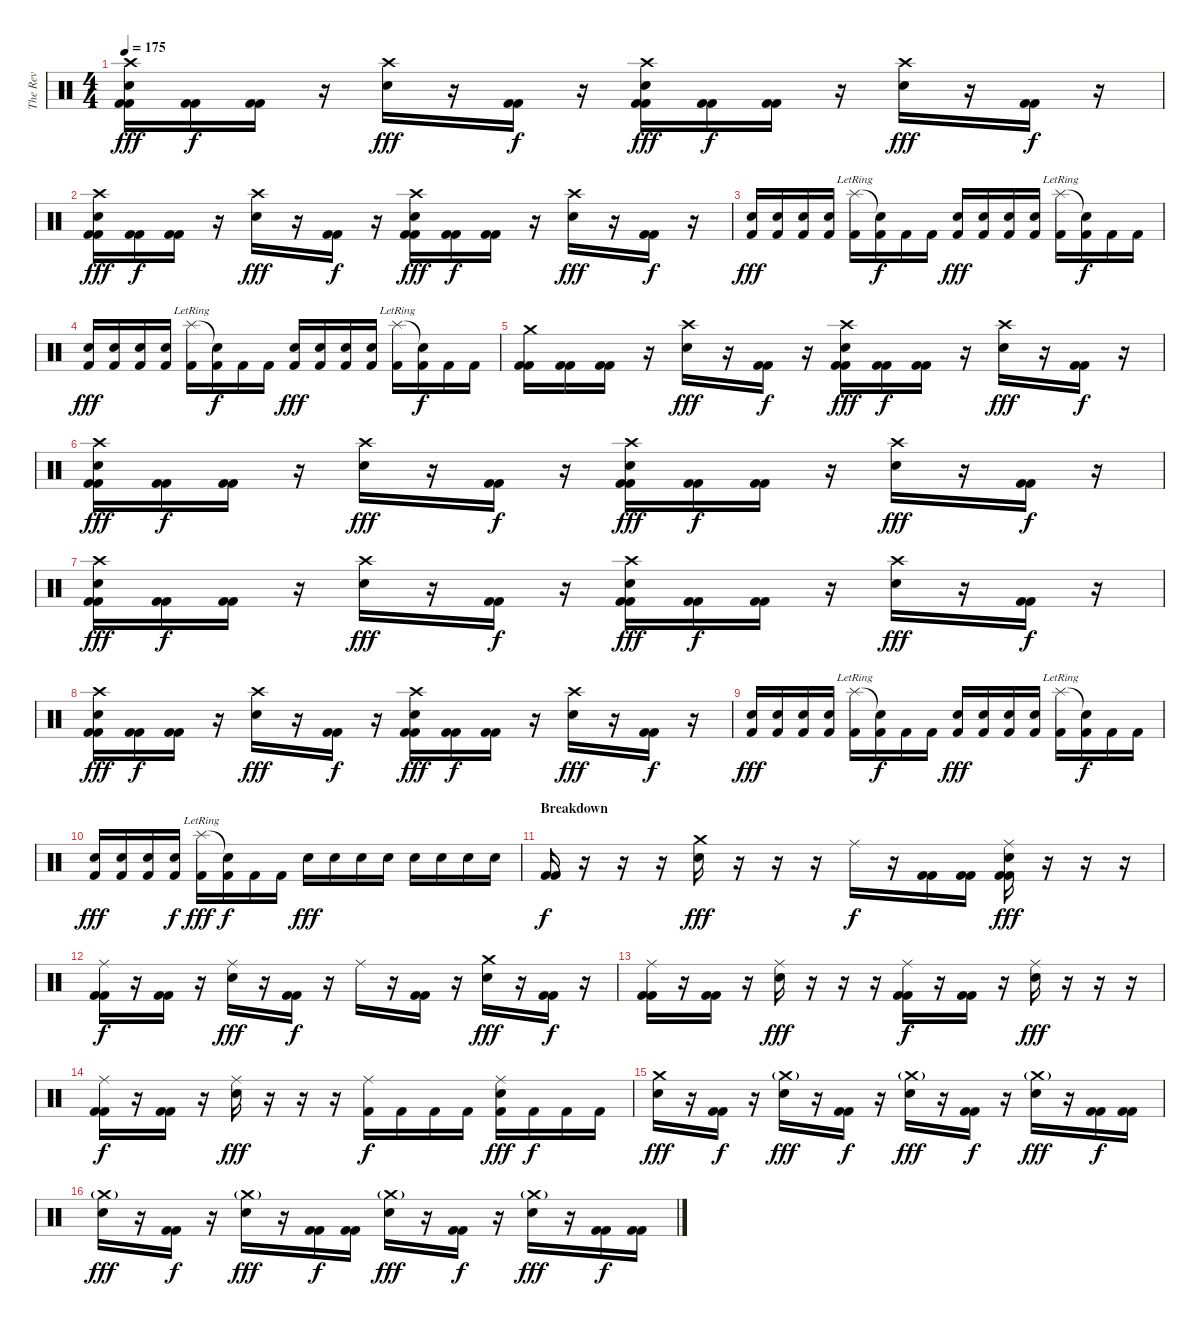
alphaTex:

\track ("The Rev" "The Rev") {instrument percussion}
\staff {score}
\articulation defaults
\ts (4 4)
\tempo 175
\clef neutral
\ks c
("Crash high (hit)" "Electric Snare (hit)" "Kick (hit) 2" "Kick (hit) 2").16{dy fff} ("Kick (hit) 2" "Kick (hit) 2").16{dy f} ("Kick (hit) 2" "Kick (hit) 2").16 r.16 ("Crash high (hit)" "Electric Snare (hit)").16{dy fff} r.16 ("Kick (hit) 2" "Kick (hit) 2").16{dy f} r.16 ("Crash high (hit)" "Electric Snare (hit)" "Kick (hit) 2" "Kick (hit) 2").16{dy fff} ("Kick (hit) 2" "Kick (hit) 2").16{dy f} ("Kick (hit) 2" "Kick (hit) 2").16 r.16 ("Crash high (hit)" "Electric Snare (hit)").16{dy fff} r.16 ("Kick (hit) 2" "Kick (hit) 2").16{dy f} r.16 |
("Crash high (hit)" "Electric Snare (hit)" "Kick (hit) 2" "Kick (hit) 2").16{dy fff} ("Kick (hit) 2" "Kick (hit) 2").16{dy f} ("Kick (hit) 2" "Kick (hit) 2").16 r.16 ("Crash high (hit)" "Electric Snare (hit)").16{dy fff} r.16 ("Kick (hit) 2" "Kick (hit) 2").16{dy f} r.16 ("Crash high (hit)" "Electric Snare (hit)" "Kick (hit) 2" "Kick (hit) 2").16{dy fff} ("Kick (hit) 2" "Kick (hit) 2").16{dy f} ("Kick (hit) 2" "Kick (hit) 2").16 r.16 ("Crash high (hit)" "Electric Snare (hit)").16{dy fff} r.16 ("Kick (hit) 2" "Kick (hit) 2").16{dy f} r.16 |
("Electric Snare (hit)" "Kick (hit) 2").16{dy fff} ("Electric Snare (hit)" "Kick (hit) 2").16 ("Electric Snare (hit)" "Kick (hit) 2").16 ("Electric Snare (hit)" "Kick (hit) 2").16 ("Splash (hit)"{lr} "Kick (hit) 2").16 ("Snare (hit)"{t} "Kick (hit) 2").16{dy f} "Kick (hit) 2".16 "Kick (hit) 2".16 ("Electric Snare (hit)" "Kick (hit) 2").16{dy fff} ("Electric Snare (hit)" "Kick (hit) 2").16 ("Electric Snare (hit)" "Kick (hit) 2").16 ("Electric Snare (hit)" "Kick (hit) 2").16 ("Splash (hit)"{lr} "Kick (hit) 2").16 ("Snare (hit)"{t} "Kick (hit) 2").16{dy f} "Kick (hit) 2".16 "Kick (hit) 2".16 |
("Electric Snare (hit)" "Kick (hit) 2").16{dy fff} ("Electric Snare (hit)" "Kick (hit) 2").16 ("Electric Snare (hit)" "Kick (hit) 2").16 ("Electric Snare (hit)" "Kick (hit) 2").16 ("Splash (hit)"{lr} "Kick (hit) 2").16 ("Snare (hit)"{t} "Kick (hit) 2").16{dy f} "Kick (hit) 2".16 "Kick (hit) 2".16 ("Electric Snare (hit)" "Kick (hit) 2").16{dy fff} ("Electric Snare (hit)" "Kick (hit) 2").16 ("Electric Snare (hit)" "Kick (hit) 2").16 ("Electric Snare (hit)" "Kick (hit) 2").16 ("Splash (hit)"{lr} "Kick (hit) 2").16 ("Snare (hit)"{t} "Kick (hit) 2").16{dy f} "Kick (hit) 2".16 "Kick (hit) 2".16 |
("Crash medium (hit)" "Kick (hit) 2" "Kick (hit) 2").16 ("Kick (hit) 2" "Kick (hit) 2").16 ("Kick (hit) 2" "Kick (hit) 2").16 r.16 ("Crash high (hit)" "Electric Snare (hit)").16{dy fff} r.16 ("Kick (hit) 2" "Kick (hit) 2").16{dy f} r.16 ("Crash high (hit)" "Electric Snare (hit)" "Kick (hit) 2" "Kick (hit) 2").16{dy fff} ("Kick (hit) 2" "Kick (hit) 2").16{dy f} ("Kick (hit) 2" "Kick (hit) 2").16 r.16 ("Crash high (hit)" "Electric Snare (hit)").16{dy fff} r.16 ("Kick (hit) 2" "Kick (hit) 2").16{dy f} r.16 |
("Crash high (hit)" "Electric Snare (hit)" "Kick (hit) 2" "Kick (hit) 2").16{dy fff} ("Kick (hit) 2" "Kick (hit) 2").16{dy f} ("Kick (hit) 2" "Kick (hit) 2").16 r.16 ("Crash high (hit)" "Electric Snare (hit)").16{dy fff} r.16 ("Kick (hit) 2" "Kick (hit) 2").16{dy f} r.16 ("Crash high (hit)" "Electric Snare (hit)" "Kick (hit) 2" "Kick (hit) 2").16{dy fff} ("Kick (hit) 2" "Kick (hit) 2").16{dy f} ("Kick (hit) 2" "Kick (hit) 2").16 r.16 ("Crash high (hit)" "Electric Snare (hit)").16{dy fff} r.16 ("Kick (hit) 2" "Kick (hit) 2").16{dy f} r.16 |
("Crash high (hit)" "Electric Snare (hit)" "Kick (hit) 2" "Kick (hit) 2").16{dy fff} ("Kick (hit) 2" "Kick (hit) 2").16{dy f} ("Kick (hit) 2" "Kick (hit) 2").16 r.16 ("Crash high (hit)" "Electric Snare (hit)").16{dy fff} r.16 ("Kick (hit) 2" "Kick (hit) 2").16{dy f} r.16 ("Crash high (hit)" "Electric Snare (hit)" "Kick (hit) 2" "Kick (hit) 2").16{dy fff} ("Kick (hit) 2" "Kick (hit) 2").16{dy f} ("Kick (hit) 2" "Kick (hit) 2").16 r.16 ("Crash high (hit)" "Electric Snare (hit)").16{dy fff} r.16 ("Kick (hit) 2" "Kick (hit) 2").16{dy f} r.16 |
("Crash high (hit)" "Electric Snare (hit)" "Kick (hit) 2" "Kick (hit) 2").16{dy fff} ("Kick (hit) 2" "Kick (hit) 2").16{dy f} ("Kick (hit) 2" "Kick (hit) 2").16 r.16 ("Crash high (hit)" "Electric Snare (hit)").16{dy fff} r.16 ("Kick (hit) 2" "Kick (hit) 2").16{dy f} r.16 ("Crash high (hit)" "Electric Snare (hit)" "Kick (hit) 2" "Kick (hit) 2").16{dy fff} ("Kick (hit) 2" "Kick (hit) 2").16{dy f} ("Kick (hit) 2" "Kick (hit) 2").16 r.16 ("Crash high (hit)" "Electric Snare (hit)").16{dy fff} r.16 ("Kick (hit) 2" "Kick (hit) 2").16{dy f} r.16 |
("Electric Snare (hit)" "Kick (hit) 2").16{dy fff} ("Electric Snare (hit)" "Kick (hit) 2").16 ("Electric Snare (hit)" "Kick (hit) 2").16 ("Electric Snare (hit)" "Kick (hit) 2").16 ("Splash (hit)"{lr} "Kick (hit) 2").16 ("Snare (hit)"{t} "Kick (hit) 2").16{dy f} "Kick (hit) 2".16 "Kick (hit) 2".16 ("Electric Snare (hit)" "Kick (hit) 2").16{dy fff} ("Electric Snare (hit)" "Kick (hit) 2").16 ("Electric Snare (hit)" "Kick (hit) 2").16 ("Electric Snare (hit)" "Kick (hit) 2").16 ("Splash (hit)"{lr} "Kick (hit) 2").16 ("Snare (hit)"{t} "Kick (hit) 2").16{dy f} "Kick (hit) 2".16 "Kick (hit) 2".16 |
("Electric Snare (hit)" "Kick (hit) 2").16{dy fff} ("Electric Snare (hit)" "Kick (hit) 2").16 ("Electric Snare (hit)" "Kick (hit) 2").16 ("Electric Snare (hit)" "Kick (hit) 2").16{dy f} ("Splash (hit)"{lr} "Kick (hit) 2").16{dy fff} ("Snare (hit)"{t} "Kick (hit) 2").16{dy f} "Kick (hit) 2".16 "Kick (hit) 2".16 "Electric Snare (hit)".16{dy fff} "Electric Snare (hit)".16 "Electric Snare (hit)".16 "Electric Snare (hit)".16 "Electric Snare (hit)".16 "Electric Snare (hit)".16 "Electric Snare (hit)".16 "Electric Snare (hit)".16 |
\section ("" "Breakdown")
("Kick (hit) 2" "Kick (hit) 2").16{dy f} r.16 r.16 r.16 ("Crash medium (hit)" "Electric Snare (hit)").16{dy fff} r.16 r.16 r.16 "Ride (middle)".16{dy f} r.16 ("Kick (hit) 2" "Kick (hit) 2").16 ("Kick (hit) 2" "Kick (hit) 2").16 ("Ride (middle)" "Electric Snare (hit)" "Kick (hit) 2" "Kick (hit) 2").16{dy fff} r.16 r.16 r.16 |
("Ride (middle)" "Kick (hit) 2" "Kick (hit) 2").16{dy f} r.16 ("Kick (hit) 2" "Kick (hit) 2").16 r.16 ("Ride (middle)" "Electric Snare (hit)").16{dy fff} r.16 ("Kick (hit) 2" "Kick (hit) 2").16{dy f} r.16 "Ride (middle)".16 r.16 ("Kick (hit) 2" "Kick (hit) 2").16 r.16 ("Crash medium (hit)" "Electric Snare (hit)").16{dy fff} r.16 ("Kick (hit) 2" "Kick (hit) 2").16{dy f} r.16 |
("Ride (middle)" "Kick (hit) 2" "Kick (hit) 2").16 r.16 ("Kick (hit) 2" "Kick (hit) 2").16 r.16 ("Ride (middle)" "Electric Snare (hit)").16{dy fff} r.16 r.16 r.16 ("Ride (middle)" "Kick (hit) 2" "Kick (hit) 2").16{dy f} r.16 ("Kick (hit) 2" "Kick (hit) 2").16 r.16 ("Ride (middle)" "Electric Snare (hit)").16{dy fff} r.16 r.16 r.16 |
("Ride (middle)" "Kick (hit) 2" "Kick (hit) 2").16{dy f} r.16 ("Kick (hit) 2" "Kick (hit) 2").16 r.16 ("Ride (middle)" "Electric Snare (hit)").16{dy fff} r.16 r.16 r.16 ("Ride (middle)" "Kick (hit) 2").16{dy f} "Kick (hit) 2".16 "Kick (hit) 2".16 "Kick (hit) 2".16 ("Ride (middle)" "Electric Snare (hit)" "Kick (hit) 2").16{dy fff} "Kick (hit) 2".16{dy f} "Kick (hit) 2".16 "Kick (hit) 2".16 |
("Crash medium (hit)" "Electric Snare (hit)").16{dy fff} r.16 ("Kick (hit) 2" "Kick (hit) 2").16{dy f} r.16 ("Crash medium (hit)"{g} "Electric Snare (hit)").16{dy fff} r.16 ("Kick (hit) 2" "Kick (hit) 2").16{dy f} r.16 ("Crash medium (hit)"{g} "Electric Snare (hit)").16{dy fff} r.16 ("Kick (hit) 2" "Kick (hit) 2").16{dy f} r.16 ("Crash medium (hit)"{g} "Electric Snare (hit)").16{dy fff} r.16 ("Kick (hit) 2" "Kick (hit) 2").16{dy f} ("Kick (hit) 2" "Kick (hit) 2").16 |
("Crash medium (hit)"{g} "Electric Snare (hit)").16{dy fff} r.16 ("Kick (hit) 2" "Kick (hit) 2").16{dy f} r.16 ("Crash medium (hit)"{g} "Electric Snare (hit)").16{dy fff} r.16 ("Kick (hit) 2" "Kick (hit) 2").16{dy f} ("Kick (hit) 2" "Kick (hit) 2").16 ("Crash medium (hit)"{g} "Electric Snare (hit)").16{dy fff} r.16 ("Kick (hit) 2" "Kick (hit) 2").16{dy f} r.16 ("Crash medium (hit)"{g} "Electric Snare (hit)").16{dy fff} r.16 ("Kick (hit) 2" "Kick (hit) 2").16{dy f} ("Kick (hit) 2" "Kick (hit) 2").16
